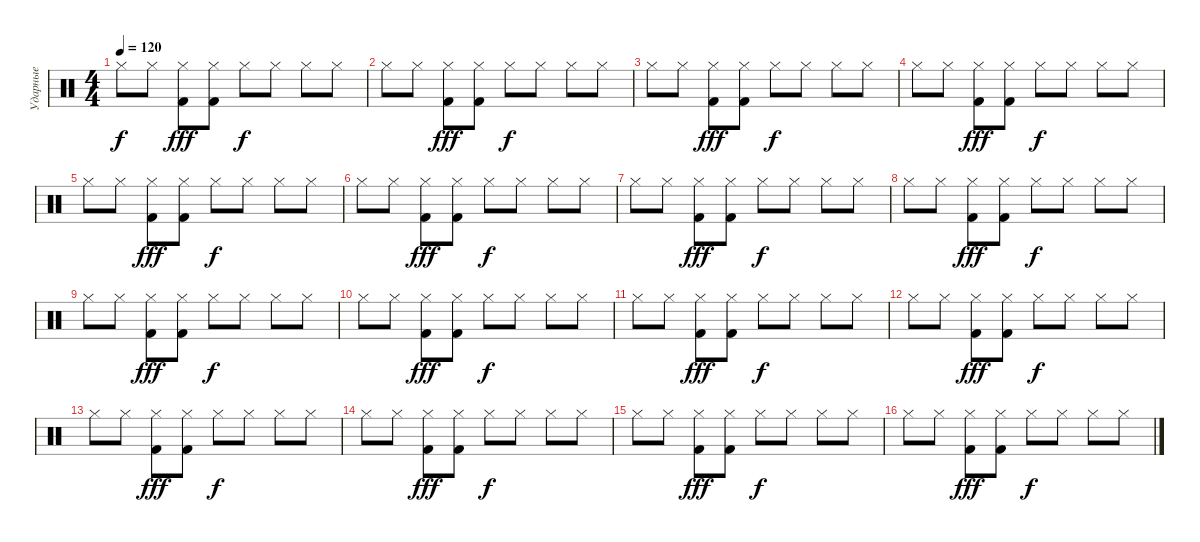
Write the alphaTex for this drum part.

\track ("Ударные" "Ударные") {instrument percussion}
\staff {score}
\articulation defaults
\ts (4 4)
\tempo 120
\clef neutral
\ks c "Hi-Hat (closed)".8{dy f} "Hi-Hat (closed)".8
("Hi-Hat (closed)" "Kick (hit) 2").8{dy fff} ("Hi-Hat (closed)" "Kick (hit) 2").8 "Hi-Hat (closed)".8{dy f} "Hi-Hat (closed)".8 "Hi-Hat (closed)".8 "Hi-Hat (closed)".8 |
"Hi-Hat (closed)".8 "Hi-Hat (closed)".8 ("Hi-Hat (closed)" "Kick (hit) 2").8{dy fff} ("Hi-Hat (closed)" "Kick (hit) 2").8 "Hi-Hat (closed)".8{dy f} "Hi-Hat (closed)".8 "Hi-Hat (closed)".8 "Hi-Hat (closed)".8 |
"Hi-Hat (closed)".8 "Hi-Hat (closed)".8 ("Hi-Hat (closed)" "Kick (hit) 2").8{dy fff} ("Hi-Hat (closed)" "Kick (hit) 2").8 "Hi-Hat (closed)".8{dy f} "Hi-Hat (closed)".8 "Hi-Hat (closed)".8 "Hi-Hat (closed)".8 |
"Hi-Hat (closed)".8 "Hi-Hat (closed)".8 ("Hi-Hat (closed)" "Kick (hit) 2").8{dy fff} ("Hi-Hat (closed)" "Kick (hit) 2").8 "Hi-Hat (closed)".8{dy f} "Hi-Hat (closed)".8 "Hi-Hat (closed)".8 "Hi-Hat (closed)".8 |
"Hi-Hat (closed)".8 "Hi-Hat (closed)".8 ("Hi-Hat (closed)" "Kick (hit) 2").8{dy fff} ("Hi-Hat (closed)" "Kick (hit) 2").8 "Hi-Hat (closed)".8{dy f} "Hi-Hat (closed)".8 "Hi-Hat (closed)".8 "Hi-Hat (closed)".8 |
"Hi-Hat (closed)".8 "Hi-Hat (closed)".8 ("Hi-Hat (closed)" "Kick (hit) 2").8{dy fff} ("Hi-Hat (closed)" "Kick (hit) 2").8 "Hi-Hat (closed)".8{dy f} "Hi-Hat (closed)".8 "Hi-Hat (closed)".8 "Hi-Hat (closed)".8 |
"Hi-Hat (closed)".8 "Hi-Hat (closed)".8 ("Hi-Hat (closed)" "Kick (hit) 2").8{dy fff} ("Hi-Hat (closed)" "Kick (hit) 2").8 "Hi-Hat (closed)".8{dy f} "Hi-Hat (closed)".8 "Hi-Hat (closed)".8 "Hi-Hat (closed)".8 |
"Hi-Hat (closed)".8 "Hi-Hat (closed)".8 ("Hi-Hat (closed)" "Kick (hit) 2").8{dy fff} ("Hi-Hat (closed)" "Kick (hit) 2").8 "Hi-Hat (closed)".8{dy f} "Hi-Hat (closed)".8 "Hi-Hat (closed)".8 "Hi-Hat (closed)".8 |
"Hi-Hat (closed)".8 "Hi-Hat (closed)".8 ("Hi-Hat (closed)" "Kick (hit) 2").8{dy fff} ("Hi-Hat (closed)" "Kick (hit) 2").8 "Hi-Hat (closed)".8{dy f} "Hi-Hat (closed)".8 "Hi-Hat (closed)".8 "Hi-Hat (closed)".8 |
"Hi-Hat (closed)".8 "Hi-Hat (closed)".8 ("Hi-Hat (closed)" "Kick (hit) 2").8{dy fff} ("Hi-Hat (closed)" "Kick (hit) 2").8 "Hi-Hat (closed)".8{dy f} "Hi-Hat (closed)".8 "Hi-Hat (closed)".8 "Hi-Hat (closed)".8 |
"Hi-Hat (closed)".8 "Hi-Hat (closed)".8 ("Hi-Hat (closed)" "Kick (hit) 2").8{dy fff} ("Hi-Hat (closed)" "Kick (hit) 2").8 "Hi-Hat (closed)".8{dy f} "Hi-Hat (closed)".8 "Hi-Hat (closed)".8 "Hi-Hat (closed)".8 |
"Hi-Hat (closed)".8 "Hi-Hat (closed)".8 ("Hi-Hat (closed)" "Kick (hit) 2").8{dy fff} ("Hi-Hat (closed)" "Kick (hit) 2").8 "Hi-Hat (closed)".8{dy f} "Hi-Hat (closed)".8 "Hi-Hat (closed)".8 "Hi-Hat (closed)".8 |
"Hi-Hat (closed)".8 "Hi-Hat (closed)".8 ("Hi-Hat (closed)" "Kick (hit) 2").8{dy fff} ("Hi-Hat (closed)" "Kick (hit) 2").8 "Hi-Hat (closed)".8{dy f} "Hi-Hat (closed)".8 "Hi-Hat (closed)".8 "Hi-Hat (closed)".8 |
"Hi-Hat (closed)".8 "Hi-Hat (closed)".8 ("Hi-Hat (closed)" "Kick (hit) 2").8{dy fff} ("Hi-Hat (closed)" "Kick (hit) 2").8 "Hi-Hat (closed)".8{dy f} "Hi-Hat (closed)".8 "Hi-Hat (closed)".8 "Hi-Hat (closed)".8 |
"Hi-Hat (closed)".8 "Hi-Hat (closed)".8 ("Hi-Hat (closed)" "Kick (hit) 2").8{dy fff} ("Hi-Hat (closed)" "Kick (hit) 2").8 "Hi-Hat (closed)".8{dy f} "Hi-Hat (closed)".8 "Hi-Hat (closed)".8 "Hi-Hat (closed)".8 |
"Hi-Hat (closed)".8 "Hi-Hat (closed)".8 ("Hi-Hat (closed)" "Kick (hit) 2").8{dy fff} ("Hi-Hat (closed)" "Kick (hit) 2").8 "Hi-Hat (closed)".8{dy f} "Hi-Hat (closed)".8 "Hi-Hat (closed)".8 "Hi-Hat (closed)".8
